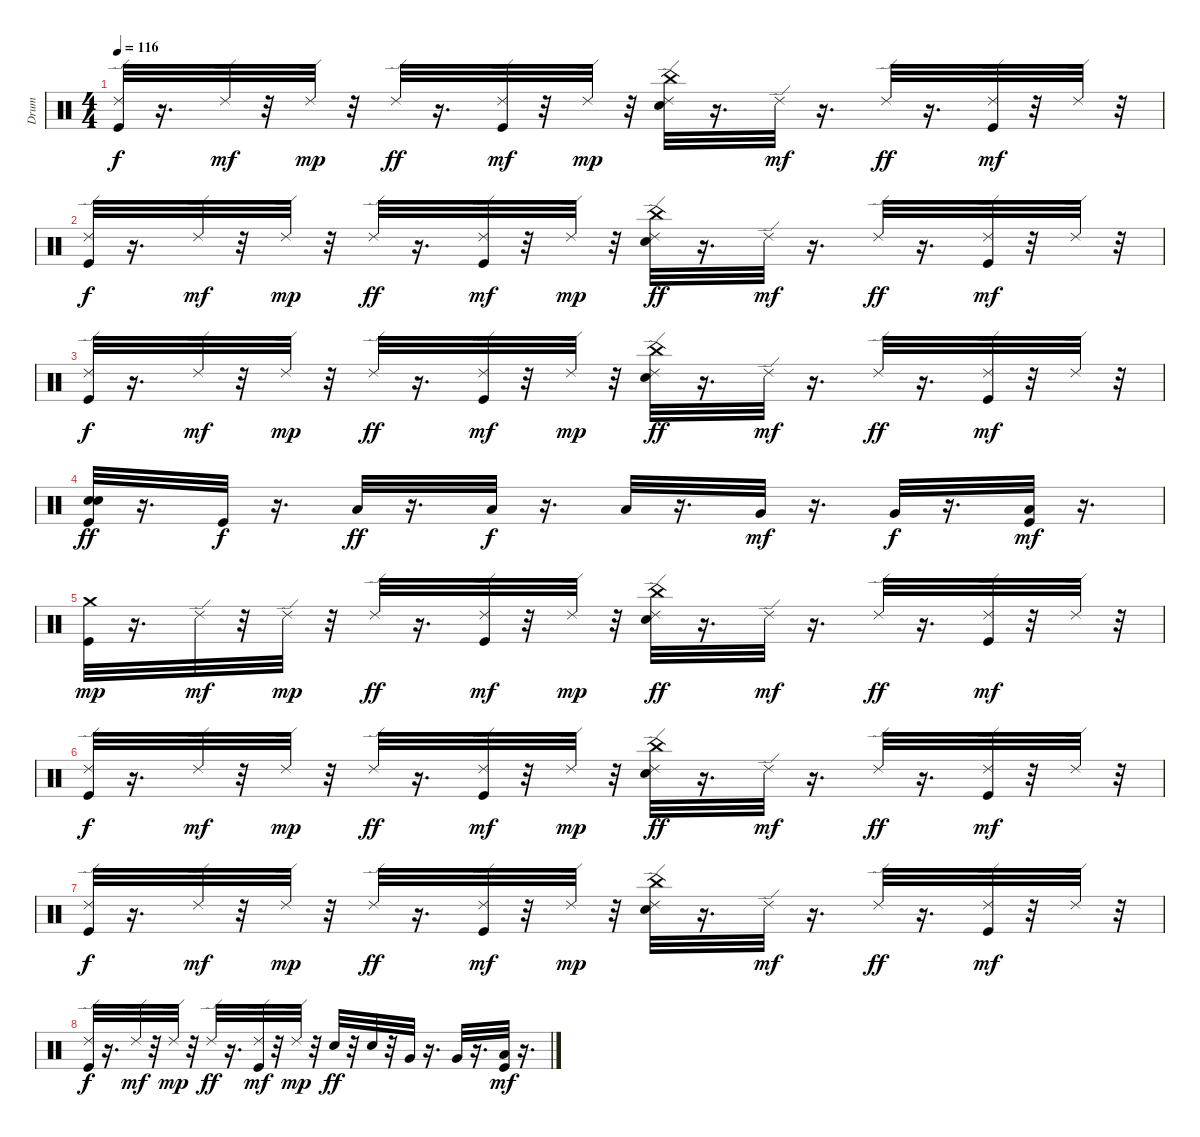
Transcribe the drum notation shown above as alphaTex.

\track ("Drum    " "Drum    ") {instrument percussion}
\staff {score}
\articulation defaults
\ts (4 4)
\tempo 116
\clef neutral
\ks c
("Ride (edge) 2" "Kick (hit)").32{dy f} r.16{d} "Ride (edge) 2".32{dy mf} r.32 "Ride (edge) 2".32{dy mp} r.32 "Ride (edge) 2".32{dy ff} r.16{d} ("Kick (hit)" "Ride (edge) 2").32{dy mf} r.32 "Ride (edge) 2".32{dy mp} r.32 ("Electric Snare (hit)" "Ride (edge) 2" "China (hit)").32 r.16{d} "Ride (edge) 2".32{dy mf} r.16{d} "Ride (edge) 2".32{dy ff} r.16{d} ("Kick (hit)" "Ride (edge) 2").32{dy mf} r.32 "Ride (edge) 2".32 r.32 |
("Ride (edge) 2" "Kick (hit)").32{dy f} r.16{d} "Ride (edge) 2".32{dy mf} r.32 "Ride (edge) 2".32{dy mp} r.32 "Ride (edge) 2".32{dy ff} r.16{d} ("Kick (hit)" "Ride (edge) 2").32{dy mf} r.32 "Ride (edge) 2".32{dy mp} r.32 ("Electric Snare (hit)" "China (hit)" "Ride (edge) 2").32{dy ff} r.16{d} "Ride (edge) 2".32{dy mf} r.16{d} "Ride (edge) 2".32{dy ff} r.16{d} ("Kick (hit)" "Ride (edge) 2").32{dy mf} r.32 "Ride (edge) 2".32 r.32 |
("Ride (edge) 2" "Kick (hit)").32{dy f} r.16{d} "Ride (edge) 2".32{dy mf} r.32 "Ride (edge) 2".32{dy mp} r.32 "Ride (edge) 2".32{dy ff} r.16{d} ("Kick (hit)" "Ride (edge) 2").32{dy mf} r.32 "Ride (edge) 2".32{dy mp} r.32 ("Ride (edge) 2" "China (hit)" "Electric Snare (hit)").32{dy ff} r.16{d} "Ride (edge) 2".32{dy mf} r.16{d} "Ride (edge) 2".32{dy ff} r.16{d} ("Ride (edge) 2" "Kick (hit)").32{dy mf} r.32 "Ride (edge) 2".32 r.32 |
("Electric Snare (hit)" "Kick (hit)" "Electric Snare (hit)").32{dy ff} r.16{d} "Kick (hit)".32{dy f} r.16{d} "Low Tom (hit)".32{dy ff} r.16{d} "Low Tom (hit)".32{dy f} r.16{d} "Low Tom (hit)".32 r.16{d} "Very Low Tom (hit)".32{dy mf} r.16{d} "Very Low Tom (hit)".32{dy f} r.16{d} ("Kick (hit)" "Low Floor Tom (hit)").32{dy mf} r.16{d} |
("Crash medium (hit)" "Kick (hit)").32{dy mp} r.16{d} "Ride (edge) 2".32{dy mf} r.32 "Ride (edge) 2".32{dy mp} r.32 "Ride (edge) 2".32{dy ff} r.16{d} ("Kick (hit)" "Ride (edge) 2").32{dy mf} r.32 "Ride (edge) 2".32{dy mp} r.32 ("Ride (edge) 2" "China (hit)" "Electric Snare (hit)").32{dy ff} r.16{d} "Ride (edge) 2".32{dy mf} r.16{d} "Ride (edge) 2".32{dy ff} r.16{d} ("Kick (hit)" "Ride (edge) 2").32{dy mf} r.32 "Ride (edge) 2".32 r.32 |
("Ride (edge) 2" "Kick (hit)").32{dy f} r.16{d} "Ride (edge) 2".32{dy mf} r.32 "Ride (edge) 2".32{dy mp} r.32 "Ride (edge) 2".32{dy ff} r.16{d} ("Kick (hit)" "Ride (edge) 2").32{dy mf} r.32 "Ride (edge) 2".32{dy mp} r.32 ("China (hit)" "Electric Snare (hit)" "Ride (edge) 2").32{dy ff} r.16{d} "Ride (edge) 2".32{dy mf} r.16{d} "Ride (edge) 2".32{dy ff} r.16{d} ("Kick (hit)" "Ride (edge) 2").32{dy mf} r.32 "Ride (edge) 2".32 r.32 |
("Kick (hit)" "Ride (edge) 2").32{dy f} r.16{d} "Ride (edge) 2".32{dy mf} r.32 "Ride (edge) 2".32{dy mp} r.32 "Ride (edge) 2".32{dy ff} r.16{d} ("Kick (hit)" "Ride (edge) 2").32{dy mf} r.32 "Ride (edge) 2".32{dy mp} r.32 ("Ride (edge) 2" "Electric Snare (hit)" "China (hit)").32 r.16{d} "Ride (edge) 2".32{dy mf} r.16{d} "Ride (edge) 2".32{dy ff} r.16{d} ("Kick (hit)" "Ride (edge) 2").32{dy mf} r.32 "Ride (edge) 2".32 r.32 |
("Ride (edge) 2" "Kick (hit)").32{dy f} r.16{d} "Ride (edge) 2".32{dy mf} r.32 "Ride (edge) 2".32{dy mp} r.32 "Ride (edge) 2".32{dy ff} r.16{d} ("Kick (hit)" "Ride (edge) 2").32{dy mf volume 13} r.32 "Ride (edge) 2".32{dy mp} r.32 "Electric Snare (hit)".32{dy ff} r.32 "Electric Snare (hit)".32 r.32 "Very Low Tom (hit)".32 r.16{d} "Very Low Tom (hit)".32 r.16{d} ("Low Floor Tom (hit)" "Kick (hit)").32{dy mf volume 12} r.16{d}
